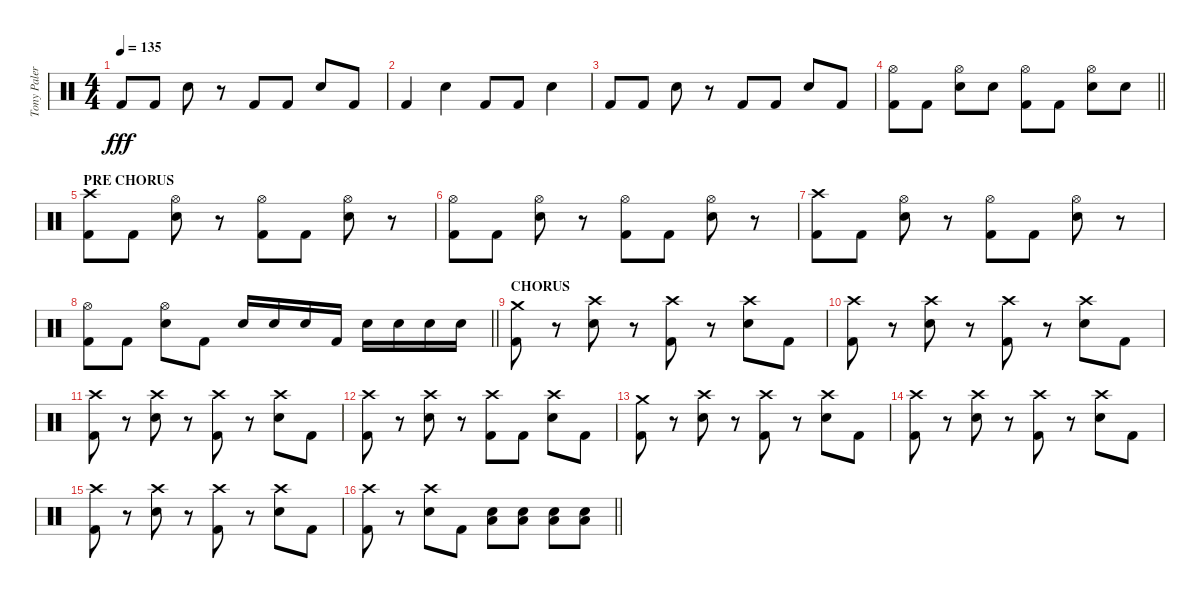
\track ("Tony Palermo" "Tony Paler") {instrument percussion}
\staff {score}
\articulation defaults
\ts (4 4)
\tempo 135
\clef neutral
\ks c "Kick (hit) 2".8{dy fff} "Kick (hit) 2".8 "Snare (hit) 2".8
r.8 "Kick (hit) 2".8 "Kick (hit) 2".8 "Snare (hit) 2".8 "Kick (hit) 2".8 |
"Kick (hit) 2".4 "Snare (hit) 2".4 "Kick (hit) 2".8 "Kick (hit) 2".8 "Snare (hit) 2".4 |
"Kick (hit) 2".8 "Kick (hit) 2".8 "Snare (hit) 2".8 r.8 "Kick (hit) 2".8 "Kick (hit) 2".8 "Snare (hit) 2".8 "Kick (hit) 2".8 |
\barLineRight lightlight
("Hi-Hat (open)" "Kick (hit) 2").8 "Kick (hit) 2".8 ("Hi-Hat (open)" "Snare (hit) 2").8 "Snare (hit) 2".8 ("Hi-Hat (open)" "Kick (hit) 2").8 "Kick (hit) 2".8 ("Hi-Hat (open)" "Snare (hit) 2").8 "Snare (hit) 2".8 |
\section ("" "PRE CHORUS")
("Crash high (hit)" "Kick (hit) 2").8 "Kick (hit) 2".8 ("Hi-Hat (open)" "Snare (hit) 2").8 r.8 ("Hi-Hat (open)" "Kick (hit) 2").8 "Kick (hit) 2".8 ("Hi-Hat (open)" "Snare (hit) 2").8 r.8 |
("Hi-Hat (open)" "Kick (hit) 2").8 "Kick (hit) 2".8 ("Hi-Hat (open)" "Snare (hit) 2").8 r.8 ("Hi-Hat (open)" "Kick (hit) 2").8 "Kick (hit) 2".8 ("Hi-Hat (open)" "Snare (hit) 2").8 r.8 |
("Crash high (hit)" "Kick (hit) 2").8 "Kick (hit) 2".8 ("Hi-Hat (open)" "Snare (hit) 2").8 r.8 ("Hi-Hat (open)" "Kick (hit) 2").8 "Kick (hit) 2".8 ("Hi-Hat (open)" "Snare (hit) 2").8 r.8 |
\barLineRight lightlight
("Hi-Hat (open)" "Kick (hit) 2").8 "Kick (hit) 2".8 ("Hi-Hat (open)" "Snare (hit) 2").8 "Kick (hit) 2".8 "Snare (hit) 2".16 "Snare (hit) 2".16 "Snare (hit) 2".16 "Kick (hit) 2".16 "Snare (hit) 2".16 "Snare (hit) 2".16 "Snare (hit) 2".16 "Snare (hit) 2".16 |
\section ("" "CHORUS")
("Crash medium (hit)" "Kick (hit) 2").8 r.8 ("Crash high (hit)" "Snare (hit) 2").8 r.8 ("Crash high (hit)" "Kick (hit) 2").8 r.8 ("Crash high (hit)" "Snare (hit) 2").8 "Kick (hit) 2".8 |
("Crash high (hit)" "Kick (hit) 2").8 r.8 ("Crash high (hit)" "Snare (hit) 2").8 r.8 ("Crash high (hit)" "Kick (hit) 2").8 r.8 ("Crash high (hit)" "Snare (hit) 2").8 "Kick (hit) 2".8 |
("Crash high (hit)" "Kick (hit) 2").8 r.8 ("Crash high (hit)" "Snare (hit) 2").8 r.8 ("Crash high (hit)" "Kick (hit) 2").8 r.8 ("Crash high (hit)" "Snare (hit) 2").8 "Kick (hit) 2".8 |
("Crash high (hit)" "Kick (hit) 2").8 r.8 ("Crash high (hit)" "Snare (hit) 2").8 r.8 ("Crash high (hit)" "Kick (hit) 2").8 "Kick (hit) 2".8 ("Crash high (hit)" "Snare (hit) 2").8 "Kick (hit) 2".8 |
("Crash medium (hit)" "Kick (hit) 2").8 r.8 ("Crash high (hit)" "Snare (hit) 2").8 r.8 ("Crash high (hit)" "Kick (hit) 2").8 r.8 ("Crash high (hit)" "Snare (hit) 2").8 "Kick (hit) 2".8 |
("Crash high (hit)" "Kick (hit) 2").8 r.8 ("Crash high (hit)" "Snare (hit) 2").8 r.8 ("Crash high (hit)" "Kick (hit) 2").8 r.8 ("Crash high (hit)" "Snare (hit) 2").8 "Kick (hit) 2".8 |
("Crash high (hit)" "Kick (hit) 2").8 r.8 ("Crash high (hit)" "Snare (hit) 2").8 r.8 ("Crash high (hit)" "Kick (hit) 2").8 r.8 ("Crash high (hit)" "Snare (hit) 2").8 "Kick (hit) 2".8 |
\barLineRight lightlight
("Crash high (hit)" "Kick (hit) 2").8 r.8 ("Crash high (hit)" "Snare (hit) 2").8 "Kick (hit) 2".8 ("Low Floor Tom (hit)" "Snare (hit) 2").8 ("Low Floor Tom (hit)" "Snare (hit) 2").8 ("Low Floor Tom (hit)" "Snare (hit) 2").8 ("Low Floor Tom (hit)" "Snare (hit) 2").8
